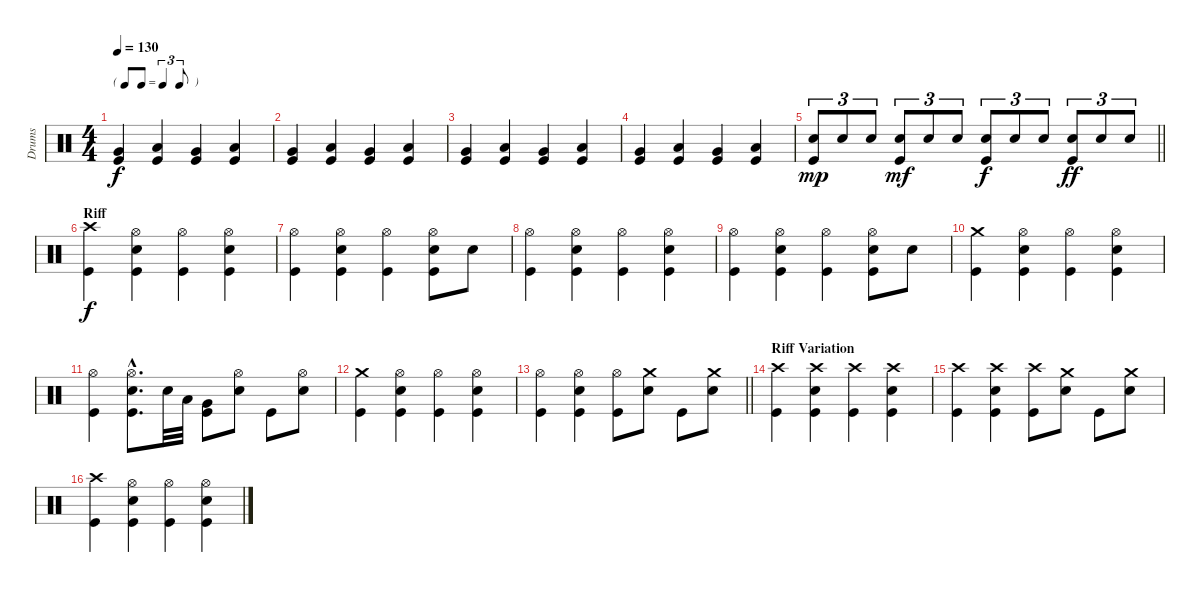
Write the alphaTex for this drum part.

\track ("Drums" "Drums") {instrument percussion}
\staff {score}
\articulation defaults
\ts (4 4)
\tf triplet8th
\tempo 130
\clef neutral
\ks c
("Kick (hit)" "Very Low Tom (hit)").4{dy f} ("Low Tom (hit)" "Kick (hit)").4 ("Kick (hit)" "Very Low Tom (hit)").4 ("Low Tom (hit)" "Kick (hit)").4 |
("Kick (hit)" "Very Low Tom (hit)").4 ("Low Tom (hit)" "Kick (hit)").4 ("Kick (hit)" "Very Low Tom (hit)").4 ("Low Tom (hit)" "Kick (hit)").4 |
("Kick (hit)" "Very Low Tom (hit)").4 ("Low Tom (hit)" "Kick (hit)").4 ("Kick (hit)" "Very Low Tom (hit)").4 ("Low Tom (hit)" "Kick (hit)").4 |
("Kick (hit)" "Very Low Tom (hit)").4 ("Low Tom (hit)" "Kick (hit)").4 ("Kick (hit)" "Very Low Tom (hit)").4 ("Low Tom (hit)" "Kick (hit)").4 |
\barLineRight lightlight
("Kick (hit)" "Snare (hit) 2").8{tu (3 2) dy mp} "Snare (hit) 2".8{tu (3 2)} "Snare (hit) 2".8{tu (3 2)} ("Kick (hit)" "Snare (hit) 2").8{tu (3 2) dy mf} "Snare (hit) 2".8{tu (3 2)} "Snare (hit) 2".8{tu (3 2)} ("Kick (hit)" "Snare (hit) 2").8{tu (3 2) dy f} "Snare (hit) 2".8{tu (3 2)} "Snare (hit) 2".8{tu (3 2)} ("Kick (hit)" "Snare (hit) 2").8{tu (3 2) dy ff} "Snare (hit) 2".8{tu (3 2)} "Snare (hit) 2".8{tu (3 2)} |
\section ("" "Riff")
("Crash high (hit)" "Kick (hit)").4{dy f} ("Hi-Hat (open)" "Snare (hit) 2" "Kick (hit)").4 ("Hi-Hat (open)" "Kick (hit)").4 ("Hi-Hat (open)" "Snare (hit) 2" "Kick (hit)").4 |
("Hi-Hat (open)" "Kick (hit)").4 ("Hi-Hat (open)" "Snare (hit) 2" "Kick (hit)").4 ("Hi-Hat (open)" "Kick (hit)").4 ("Hi-Hat (open)" "Snare (hit) 2" "Kick (hit)").8 "Snare (hit) 2".8 |
("Hi-Hat (open)" "Kick (hit)").4 ("Hi-Hat (open)" "Snare (hit) 2" "Kick (hit)").4 ("Hi-Hat (open)" "Kick (hit)").4 ("Hi-Hat (open)" "Snare (hit) 2" "Kick (hit)").4 |
("Hi-Hat (open)" "Kick (hit)").4 ("Hi-Hat (open)" "Snare (hit) 2" "Kick (hit)").4 ("Hi-Hat (open)" "Kick (hit)").4 ("Hi-Hat (open)" "Snare (hit) 2" "Kick (hit)").8 "Snare (hit) 2".8 |
("Crash medium (hit)" "Kick (hit)").4 ("Hi-Hat (open)" "Snare (hit) 2" "Kick (hit)").4 ("Hi-Hat (open)" "Kick (hit)").4 ("Hi-Hat (open)" "Snare (hit) 2" "Kick (hit)").4 |
("Hi-Hat (open)" "Kick (hit)").4 ("Hi-Hat (open)"{hac} "Snare (hit) 2"{hac} "Kick (hit)"{hac}).8{d} "Snare (hit) 2".32 "Low Tom (hit)".32 ("Very Low Tom (hit)" "Kick (hit)").8 ("Hi-Hat (open)" "Snare (hit) 2").8 "Kick (hit)".8 ("Snare (hit) 2" "Hi-Hat (open)").8 |
("Crash medium (hit)" "Kick (hit)").4 ("Hi-Hat (open)" "Snare (hit) 2" "Kick (hit)").4 ("Hi-Hat (open)" "Kick (hit)").4 ("Hi-Hat (open)" "Snare (hit) 2" "Kick (hit)").4 |
\barLineRight lightlight
("Hi-Hat (open)" "Kick (hit)").4 ("Hi-Hat (open)" "Snare (hit) 2" "Kick (hit)").4 ("Hi-Hat (open)" "Kick (hit)").8 ("Crash medium (hit)" "Snare (hit) 2").8 "Kick (hit)".8 ("Crash medium (hit)" "Snare (hit) 2").8 |
\section ("" "Riff Variation")
("Crash high (hit)" "Kick (hit)").4 ("Crash high (hit)" "Kick (hit)" "Snare (hit) 2").4 ("Crash high (hit)" "Kick (hit)").4 ("Crash high (hit)" "Kick (hit)" "Snare (hit) 2").4 |
("Crash high (hit)" "Kick (hit)").4 ("Crash high (hit)" "Kick (hit)" "Snare (hit) 2").4 ("Crash high (hit)" "Kick (hit)").8 ("Crash medium (hit)" "Snare (hit) 2").8 "Kick (hit)".8 ("Crash medium (hit)" "Snare (hit) 2").8 |
("Crash high (hit)" "Kick (hit)").4 ("Hi-Hat (open)" "Snare (hit) 2" "Kick (hit)").4 ("Hi-Hat (open)" "Kick (hit)").4 ("Hi-Hat (open)" "Snare (hit) 2" "Kick (hit)").4
